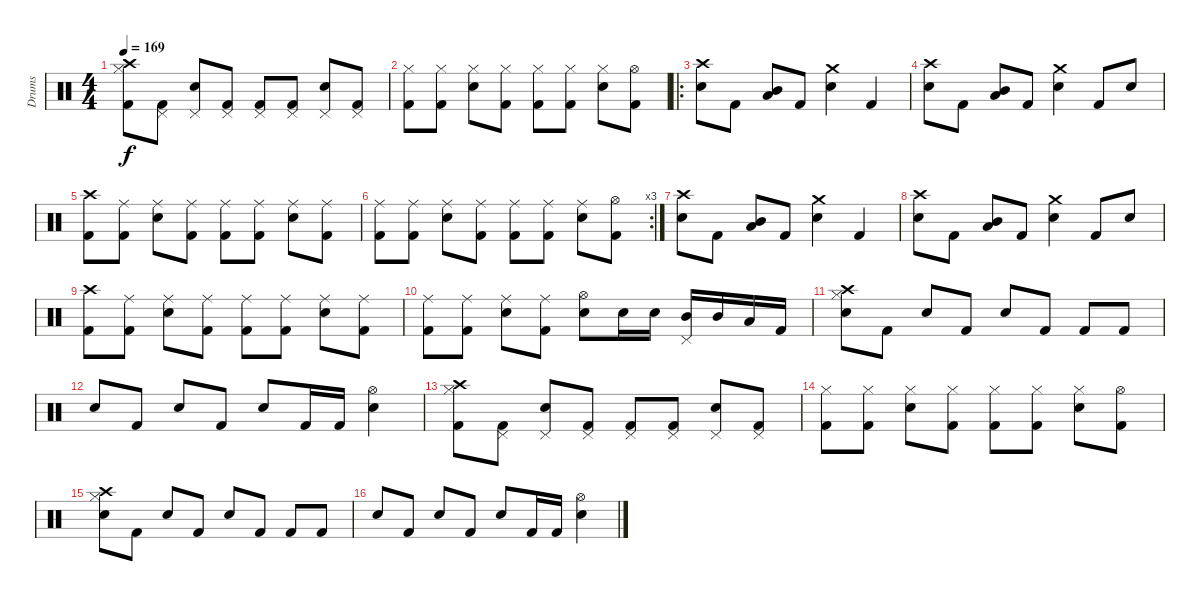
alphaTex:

\track ("Drums" "Drums") {instrument percussion}
\staff {score}
\articulation defaults
\ts (4 4)
\tempo 169
\clef neutral
\ks c
("Crash high (hit)" "Hi-Hat (closed)" "Kick (hit) 2").8{dy f} ("Pedal Hi-Hat (hit)" "Kick (hit) 2").8 ("Pedal Hi-Hat (hit)" "Snare (hit) 2").8 ("Pedal Hi-Hat (hit)" "Kick (hit) 2").8 ("Pedal Hi-Hat (hit)" "Kick (hit) 2").8 ("Pedal Hi-Hat (hit)" "Kick (hit) 2").8 ("Pedal Hi-Hat (hit)" "Snare (hit) 2").8 ("Pedal Hi-Hat (hit)" "Kick (hit) 2").8 |
("Hi-Hat (closed)" "Kick (hit) 2").8 ("Hi-Hat (closed)" "Kick (hit) 2").8 ("Hi-Hat (closed)" "Snare (hit) 2").8 ("Hi-Hat (closed)" "Kick (hit) 2").8 ("Hi-Hat (closed)" "Kick (hit) 2").8 ("Hi-Hat (closed)" "Kick (hit) 2").8 ("Hi-Hat (closed)" "Snare (hit) 2").8 ("Hi-Hat (open)" "Kick (hit) 2").8 |
\ro
("Crash high (hit)" "Snare (hit) 2").8 "Kick (hit) 2".8 ("Mid Tom (hit)" "Low Floor Tom (hit)").8 "Kick (hit) 2".8 ("Crash medium (hit)" "Snare (hit) 2").4 "Kick (hit) 2".4 |
("Crash high (hit)" "Snare (hit) 2").8 "Kick (hit) 2".8 ("Mid Tom (hit)" "Low Floor Tom (hit)").8 "Kick (hit) 2".8 ("Crash medium (hit)" "Snare (hit) 2").4 "Kick (hit) 2".8 "Snare (hit) 2".8 |
("Crash high (hit)" "Kick (hit) 2").8 ("Ride (middle)" "Kick (hit) 2").8 ("Ride (middle)" "Snare (hit) 2").8 ("Ride (middle)" "Kick (hit) 2").8 ("Ride (middle)" "Kick (hit) 2").8 ("Ride (middle)" "Kick (hit) 2").8 ("Ride (middle)" "Snare (hit) 2").8 ("Ride (middle)" "Kick (hit) 2").8 |
\rc 3
("Ride (middle)" "Kick (hit) 2").8 ("Ride (middle)" "Kick (hit) 2").8 ("Ride (middle)" "Snare (hit) 2").8 ("Ride (middle)" "Kick (hit) 2").8 ("Ride (middle)" "Kick (hit) 2").8 ("Ride (middle)" "Kick (hit) 2").8 ("Ride (middle)" "Snare (hit) 2").8 ("Hi-Hat (open)" "Kick (hit) 2").8 |
("Crash high (hit)" "Snare (hit) 2").8 "Kick (hit) 2".8 ("Mid Tom (hit)" "Low Floor Tom (hit)").8 "Kick (hit) 2".8 ("Crash medium (hit)" "Snare (hit) 2").4 "Kick (hit) 2".4 |
("Crash high (hit)" "Snare (hit) 2").8 "Kick (hit) 2".8 ("Mid Tom (hit)" "Low Floor Tom (hit)").8 "Kick (hit) 2".8 ("Crash medium (hit)" "Snare (hit) 2").4 "Kick (hit) 2".8 "Snare (hit) 2".8 |
("Crash high (hit)" "Kick (hit) 2").8 ("Ride (middle)" "Kick (hit) 2").8 ("Ride (middle)" "Snare (hit) 2").8 ("Ride (middle)" "Kick (hit) 2").8 ("Ride (middle)" "Kick (hit) 2").8 ("Ride (middle)" "Kick (hit) 2").8 ("Ride (middle)" "Snare (hit) 2").8 ("Ride (middle)" "Kick (hit) 2").8 |
("Ride (middle)" "Kick (hit) 2").8 ("Ride (middle)" "Kick (hit) 2").8 ("Ride (middle)" "Snare (hit) 2").8 ("Ride (middle)" "Kick (hit) 2").8 ("Hi-Hat (open)" "Snare (hit) 2").8 "Snare (hit) 2".16 "Snare (hit) 2".16 ("Pedal Hi-Hat (hit)" "Mid Tom (hit)").16 "Mid Tom (hit)".16 "Low Floor Tom (hit)".16 "Kick (hit) 2".16 |
("Crash high (hit)" "Hi-Hat (closed)" "Snare (hit) 2").8 "Kick (hit) 2".8 "Snare (hit) 2".8 "Kick (hit) 2".8 "Snare (hit) 2".8 "Kick (hit) 2".8 "Kick (hit) 2".8 "Kick (hit) 2".8 |
"Snare (hit) 2".8 "Kick (hit) 2".8 "Snare (hit) 2".8 "Kick (hit) 2".8 "Snare (hit) 2".8 "Kick (hit) 2".16 "Kick (hit) 2".16 ("Hi-Hat (open)" "Snare (hit) 2").4 |
("Crash high (hit)" "Hi-Hat (closed)" "Kick (hit) 2").8 ("Pedal Hi-Hat (hit)" "Kick (hit) 2").8 ("Pedal Hi-Hat (hit)" "Snare (hit) 2").8 ("Pedal Hi-Hat (hit)" "Kick (hit) 2").8 ("Pedal Hi-Hat (hit)" "Kick (hit) 2").8 ("Pedal Hi-Hat (hit)" "Kick (hit) 2").8 ("Pedal Hi-Hat (hit)" "Snare (hit) 2").8 ("Pedal Hi-Hat (hit)" "Kick (hit) 2").8 |
("Hi-Hat (closed)" "Kick (hit) 2").8 ("Hi-Hat (closed)" "Kick (hit) 2").8 ("Hi-Hat (closed)" "Snare (hit) 2").8 ("Hi-Hat (closed)" "Kick (hit) 2").8 ("Hi-Hat (closed)" "Kick (hit) 2").8 ("Hi-Hat (closed)" "Kick (hit) 2").8 ("Hi-Hat (closed)" "Snare (hit) 2").8 ("Hi-Hat (open)" "Kick (hit) 2").8 |
("Crash high (hit)" "Hi-Hat (closed)" "Snare (hit) 2").8 "Kick (hit) 2".8 "Snare (hit) 2".8 "Kick (hit) 2".8 "Snare (hit) 2".8 "Kick (hit) 2".8 "Kick (hit) 2".8 "Kick (hit) 2".8 |
"Snare (hit) 2".8 "Kick (hit) 2".8 "Snare (hit) 2".8 "Kick (hit) 2".8 "Snare (hit) 2".8 "Kick (hit) 2".16 "Kick (hit) 2".16 ("Hi-Hat (open)" "Snare (hit) 2").4
